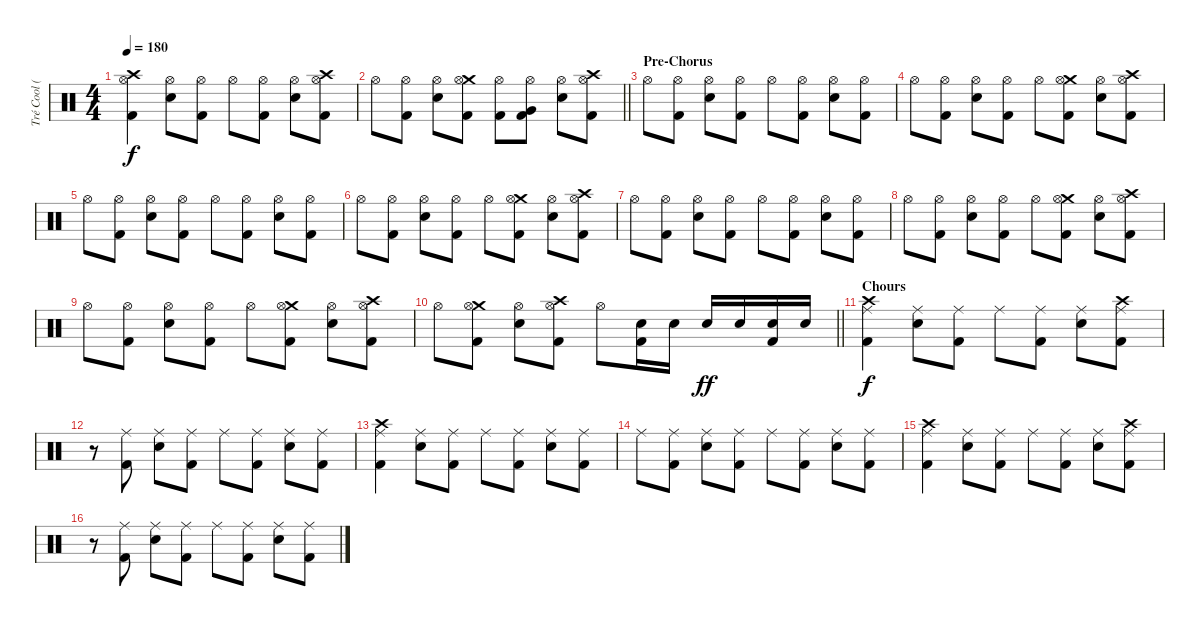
\track ("Tré Cool (Drums)" "Tré Cool (") {instrument percussion}
\staff {score}
\articulation defaults
\ts (4 4)
\tempo 180
\clef neutral
\ks c
("Crash high (hit)" "Hi-Hat (open)" "Kick (hit) 2").4{dy f} ("Hi-Hat (open)" "Electric Snare (hit)").8 ("Hi-Hat (open)" "Kick (hit) 2").8 "Hi-Hat (open)".8 ("Hi-Hat (open)" "Kick (hit) 2").8 ("Hi-Hat (open)" "Electric Snare (hit)").8 ("Crash high (hit)" "Hi-Hat (open)" "Kick (hit) 2").8 |
\barLineRight lightlight "Hi-Hat (open)".8
("Hi-Hat (open)" "Kick (hit) 2").8 ("Hi-Hat (open)" "Electric Snare (hit)").8 ("Crash medium (hit)" "Hi-Hat (open)" "Kick (hit) 2").8 ("Hi-Hat (open)" "Kick (hit) 2").8 ("Hi-Hat (open)" "Very Low Tom (hit)" "Kick (hit) 2").8 ("Hi-Hat (open)" "Electric Snare (hit)").8 ("Crash high (hit)" "Hi-Hat (open)" "Kick (hit) 2").8 |
\section ("" "Pre-Chorus")
"Hi-Hat (open)".8 ("Hi-Hat (open)" "Kick (hit) 2").8 ("Hi-Hat (open)" "Electric Snare (hit)").8 ("Hi-Hat (open)" "Kick (hit) 2").8 "Hi-Hat (open)".8 ("Hi-Hat (open)" "Kick (hit) 2").8 ("Hi-Hat (open)" "Electric Snare (hit)").8 ("Hi-Hat (open)" "Kick (hit) 2").8 |
"Hi-Hat (open)".8 ("Hi-Hat (open)" "Kick (hit) 2").8 ("Hi-Hat (open)" "Electric Snare (hit)").8 ("Hi-Hat (open)" "Kick (hit) 2").8 "Hi-Hat (open)".8 ("Crash medium (hit)" "Hi-Hat (open)" "Kick (hit) 2").8 ("Hi-Hat (open)" "Electric Snare (hit)").8 ("Crash high (hit)" "Hi-Hat (open)" "Kick (hit) 2").8 |
"Hi-Hat (open)".8 ("Hi-Hat (open)" "Kick (hit) 2").8 ("Hi-Hat (open)" "Electric Snare (hit)").8 ("Hi-Hat (open)" "Kick (hit) 2").8 "Hi-Hat (open)".8 ("Hi-Hat (open)" "Kick (hit) 2").8 ("Hi-Hat (open)" "Electric Snare (hit)").8 ("Hi-Hat (open)" "Kick (hit) 2").8 |
"Hi-Hat (open)".8 ("Hi-Hat (open)" "Kick (hit) 2").8 ("Hi-Hat (open)" "Electric Snare (hit)").8 ("Hi-Hat (open)" "Kick (hit) 2").8 "Hi-Hat (open)".8 ("Crash medium (hit)" "Hi-Hat (open)" "Kick (hit) 2").8 ("Hi-Hat (open)" "Electric Snare (hit)").8 ("Crash high (hit)" "Hi-Hat (open)" "Kick (hit) 2").8 |
"Hi-Hat (open)".8 ("Hi-Hat (open)" "Kick (hit) 2").8 ("Hi-Hat (open)" "Electric Snare (hit)").8 ("Hi-Hat (open)" "Kick (hit) 2").8 "Hi-Hat (open)".8 ("Hi-Hat (open)" "Kick (hit) 2").8 ("Hi-Hat (open)" "Electric Snare (hit)").8 ("Hi-Hat (open)" "Kick (hit) 2").8 |
"Hi-Hat (open)".8 ("Hi-Hat (open)" "Kick (hit) 2").8 ("Hi-Hat (open)" "Electric Snare (hit)").8 ("Hi-Hat (open)" "Kick (hit) 2").8 "Hi-Hat (open)".8 ("Crash medium (hit)" "Hi-Hat (open)" "Kick (hit) 2").8 ("Hi-Hat (open)" "Electric Snare (hit)").8 ("Crash high (hit)" "Hi-Hat (open)" "Kick (hit) 2").8 |
"Hi-Hat (open)".8 ("Hi-Hat (open)" "Kick (hit) 2").8 ("Hi-Hat (open)" "Electric Snare (hit)").8 ("Hi-Hat (open)" "Kick (hit) 2").8 "Hi-Hat (open)".8 ("Crash medium (hit)" "Hi-Hat (open)" "Kick (hit) 2").8 ("Hi-Hat (open)" "Electric Snare (hit)").8 ("Crash high (hit)" "Hi-Hat (open)" "Kick (hit) 2").8 |
\barLineRight lightlight "Hi-Hat (open)".8
("Crash medium (hit)" "Hi-Hat (open)" "Kick (hit) 2").8 ("Hi-Hat (open)" "Electric Snare (hit)").8 ("Crash high (hit)" "Hi-Hat (open)" "Kick (hit) 2").8 "Hi-Hat (open)".8 ("Electric Snare (hit)" "Kick (hit) 2").16 "Electric Snare (hit)".16 "Electric Snare (hit)".16{dy ff} "Electric Snare (hit)".16 ("Electric Snare (hit)" "Kick (hit) 2").16 "Electric Snare (hit)".16 |
\section ("" "Chours")
("Crash high (hit)" "Ride (middle)" "Kick (hit) 2").4{dy f} ("Ride (middle)" "Electric Snare (hit)").8 ("Ride (middle)" "Kick (hit) 2").8 "Ride (middle)".8 ("Ride (middle)" "Kick (hit) 2").8 ("Ride (middle)" "Electric Snare (hit)").8 ("Crash high (hit)" "Ride (middle)" "Kick (hit) 2").8 |
r.8 ("Ride (middle)" "Kick (hit) 2").8 ("Ride (middle)" "Electric Snare (hit)").8 ("Ride (middle)" "Kick (hit) 2").8 "Ride (middle)".8 ("Ride (middle)" "Kick (hit) 2").8 ("Ride (middle)" "Electric Snare (hit)").8 ("Ride (middle)" "Kick (hit) 2").8 |
("Crash high (hit)" "Ride (middle)" "Kick (hit) 2").4 ("Ride (middle)" "Electric Snare (hit)").8 ("Ride (middle)" "Kick (hit) 2").8 "Ride (middle)".8 ("Ride (middle)" "Kick (hit) 2").8 ("Ride (middle)" "Electric Snare (hit)").8 ("Ride (middle)" "Kick (hit) 2").8 |
"Ride (middle)".8 ("Ride (middle)" "Kick (hit) 2").8 ("Ride (middle)" "Electric Snare (hit)").8 ("Ride (middle)" "Kick (hit) 2").8 "Ride (middle)".8 ("Ride (middle)" "Kick (hit) 2").8 ("Ride (middle)" "Electric Snare (hit)").8 ("Ride (middle)" "Kick (hit) 2").8 |
("Crash high (hit)" "Ride (middle)" "Kick (hit) 2").4 ("Ride (middle)" "Electric Snare (hit)").8 ("Ride (middle)" "Kick (hit) 2").8 "Ride (middle)".8 ("Ride (middle)" "Kick (hit) 2").8 ("Ride (middle)" "Electric Snare (hit)").8 ("Crash high (hit)" "Ride (middle)" "Kick (hit) 2").8 |
r.8 ("Ride (middle)" "Kick (hit) 2").8 ("Ride (middle)" "Electric Snare (hit)").8 ("Ride (middle)" "Kick (hit) 2").8 "Ride (middle)".8 ("Ride (middle)" "Kick (hit) 2").8 ("Ride (middle)" "Electric Snare (hit)").8 ("Ride (middle)" "Kick (hit) 2").8
